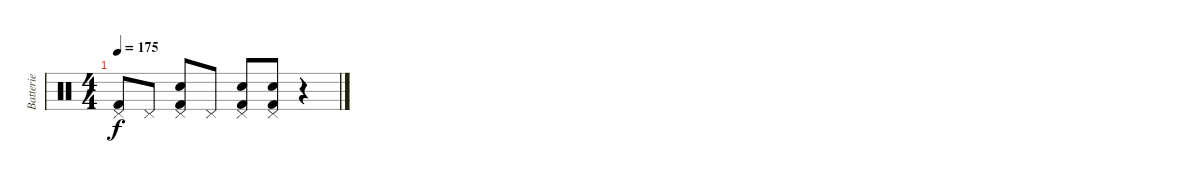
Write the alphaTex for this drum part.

\track ("Batterie" "Batterie") {instrument percussion}
\staff {score}
\articulation defaults
\ts (4 4)
\tempo 175
\clef neutral
\ks c
("Pedal Hi-Hat (hit)" "Kick (hit) 2").8{dy f} "Pedal Hi-Hat (hit)".8 ("Pedal Hi-Hat (hit)" "Electric Snare (hit)" "Kick (hit) 2").8 "Pedal Hi-Hat (hit)".8 ("Pedal Hi-Hat (hit)" "Electric Snare (hit)" "Kick (hit) 2").8 ("Pedal Hi-Hat (hit)" "Electric Snare (hit)" "Kick (hit) 2").8 r.4
